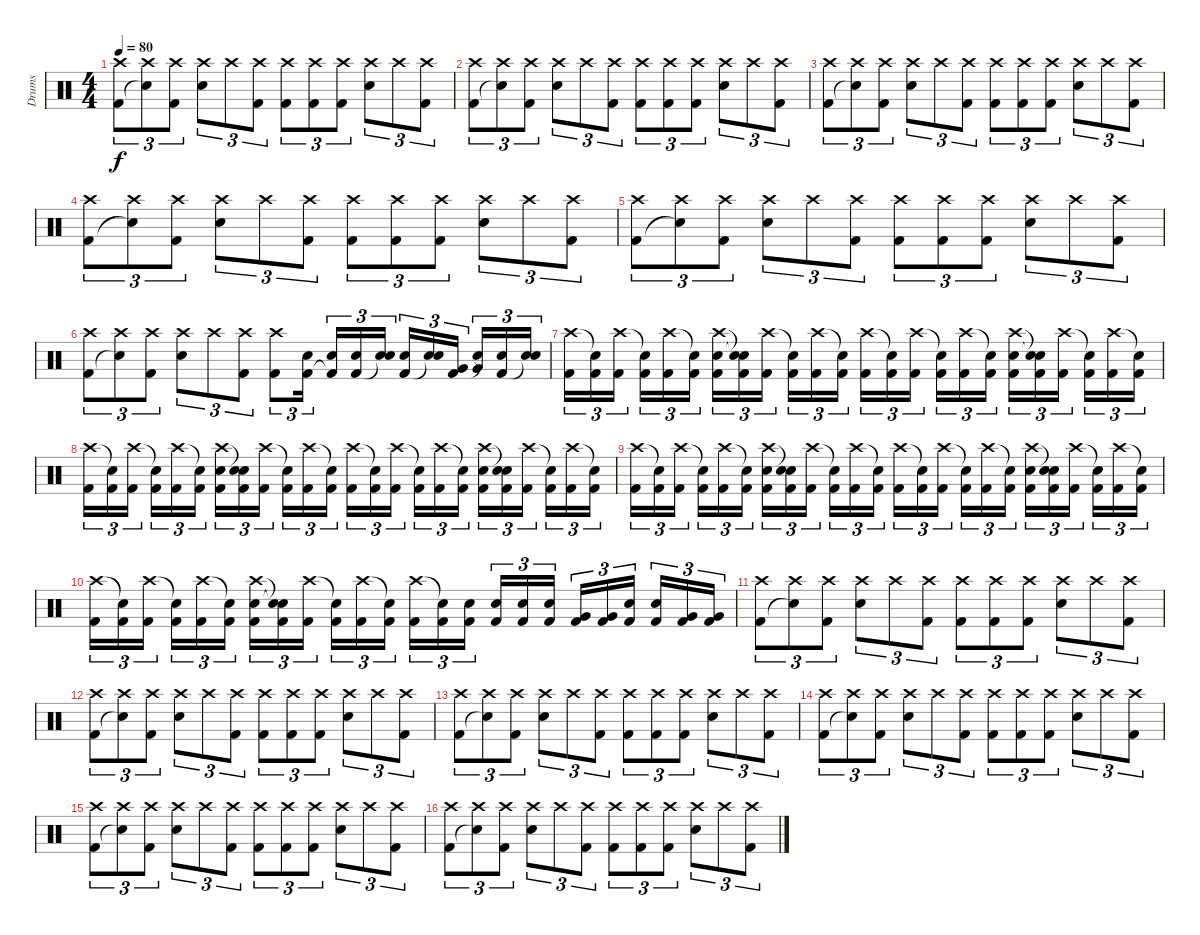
\track ("Drums" "Drums") {instrument percussion}
\staff {score}
\articulation defaults
\ts (4 4)
\tempo 80
\clef neutral
\ks c
("Crash high (hit)" "Kick (hit) 2").8{tu (3 2) dy f} ("Crash high (hit)" "Snare (hit)"{t}).8{tu (3 2)} ("Crash high (hit)" "Kick (hit) 2").8{tu (3 2)} ("Crash high (hit)" "Snare (hit) 2").8{tu (3 2)} "Crash high (hit)".8{tu (3 2)} ("Crash high (hit)" "Kick (hit) 2").8{tu (3 2)} ("Crash high (hit)" "Kick (hit) 2").8{tu (3 2)} ("Crash high (hit)" "Kick (hit) 2").8{tu (3 2)} ("Crash high (hit)" "Kick (hit) 2").8{tu (3 2)} ("Crash high (hit)" "Snare (hit) 2").8{tu (3 2)} "Crash high (hit)".8{tu (3 2)} ("Crash high (hit)" "Kick (hit) 2").8{tu (3 2)} |
("Crash high (hit)" "Kick (hit) 2").8{tu (3 2)} ("Crash high (hit)" "Snare (hit)"{t}).8{tu (3 2)} ("Crash high (hit)" "Kick (hit) 2").8{tu (3 2)} ("Crash high (hit)" "Snare (hit) 2").8{tu (3 2)} "Crash high (hit)".8{tu (3 2)} ("Crash high (hit)" "Kick (hit) 2").8{tu (3 2)} ("Crash high (hit)" "Kick (hit) 2").8{tu (3 2)} ("Crash high (hit)" "Kick (hit) 2").8{tu (3 2)} ("Crash high (hit)" "Kick (hit) 2").8{tu (3 2)} ("Crash high (hit)" "Snare (hit) 2").8{tu (3 2)} "Crash high (hit)".8{tu (3 2)} ("Crash high (hit)" "Kick (hit) 2").8{tu (3 2)} |
("Crash high (hit)" "Kick (hit) 2").8{tu (3 2)} ("Crash high (hit)" "Snare (hit)"{t}).8{tu (3 2)} ("Crash high (hit)" "Kick (hit) 2").8{tu (3 2)} ("Crash high (hit)" "Snare (hit) 2").8{tu (3 2)} "Crash high (hit)".8{tu (3 2)} ("Crash high (hit)" "Kick (hit) 2").8{tu (3 2)} ("Crash high (hit)" "Kick (hit) 2").8{tu (3 2)} ("Crash high (hit)" "Kick (hit) 2").8{tu (3 2)} ("Crash high (hit)" "Kick (hit) 2").8{tu (3 2)} ("Crash high (hit)" "Snare (hit) 2").8{tu (3 2)} "Crash high (hit)".8{tu (3 2)} ("Crash high (hit)" "Kick (hit) 2").8{tu (3 2)} |
("Crash high (hit)" "Kick (hit) 2").8{tu (3 2)} ("Crash high (hit)" "Snare (hit)"{t}).8{tu (3 2)} ("Crash high (hit)" "Kick (hit) 2").8{tu (3 2)} ("Crash high (hit)" "Snare (hit) 2").8{tu (3 2)} "Crash high (hit)".8{tu (3 2)} ("Crash high (hit)" "Kick (hit) 2").8{tu (3 2)} ("Crash high (hit)" "Kick (hit) 2").8{tu (3 2)} ("Crash high (hit)" "Kick (hit) 2").8{tu (3 2)} ("Crash high (hit)" "Kick (hit) 2").8{tu (3 2)} ("Crash high (hit)" "Snare (hit) 2").8{tu (3 2)} "Crash high (hit)".8{tu (3 2)} ("Crash high (hit)" "Kick (hit) 2").8{tu (3 2)} |
("Crash high (hit)" "Kick (hit) 2").8{tu (3 2)} ("Crash high (hit)" "Snare (hit)"{t}).8{tu (3 2)} ("Crash high (hit)" "Kick (hit) 2").8{tu (3 2)} ("Crash high (hit)" "Snare (hit) 2").8{tu (3 2)} "Crash high (hit)".8{tu (3 2)} ("Crash high (hit)" "Kick (hit) 2").8{tu (3 2)} ("Crash high (hit)" "Kick (hit) 2").8{tu (3 2)} ("Crash high (hit)" "Kick (hit) 2").8{tu (3 2)} ("Crash high (hit)" "Kick (hit) 2").8{tu (3 2)} ("Crash high (hit)" "Snare (hit) 2").8{tu (3 2)} "Crash high (hit)".8{tu (3 2)} ("Crash high (hit)" "Kick (hit) 2").8{tu (3 2)} |
("Crash high (hit)" "Kick (hit) 2").8{tu (3 2)} ("Crash high (hit)" "Snare (hit)"{t}).8{tu (3 2)} ("Crash high (hit)" "Kick (hit) 2").8{tu (3 2)} ("Crash high (hit)" "Snare (hit) 2").8{tu (3 2)} "Crash high (hit)".8{tu (3 2)} ("Crash high (hit)" "Kick (hit) 2").8{tu (3 2)} ("Crash high (hit)" "Kick (hit) 2").8{tu (3 2)} ("Snare (hit) 2" "Kick (hit) 2").16{tu (3 2)} ("Snare (hit) 2" "Kick (hit) 2"{t}).16{tu (3 2)} ("Snare (hit) 2" "Kick (hit) 2").16{tu (3 2)} ("Snare (hit) 2" "Snare (hit)"{t}).16{tu (3 2)} ("Snare (hit) 2" "Kick (hit) 2").16{tu (3 2)} ("Snare (hit) 2" "Snare (hit)"{t}).16{tu (3 2)} ("Very Low Tom (hit)" "Kick (hit) 2").16{tu (3 2)} ("Very Low Tom (hit)" "Snare (hit)"{t}).16{tu (3 2)} ("Snare (hit) 2" "Kick (hit) 2").16{tu (3 2)} ("Snare (hit) 2" "Snare (hit)"{t}).16{tu (3 2)} |
("Crash high (hit)" "Kick (hit) 2").16{tu (3 2)} ("Snare (hit)"{t} "Kick (hit) 2").16{tu (3 2)} ("Crash high (hit)" "Kick (hit) 2").16{tu (3 2)} ("Snare (hit)"{t} "Kick (hit) 2").16{tu (3 2)} ("Crash high (hit)" "Kick (hit) 2").16{tu (3 2)} ("Snare (hit)"{t} "Kick (hit) 2").16{tu (3 2)} ("Crash high (hit)" "Snare (hit) 2" "Kick (hit) 2").16{tu (3 2)} ("Snare (hit)"{t} "Snare (hit)"{t} "Kick (hit) 2").16{tu (3 2)} ("Crash high (hit)" "Kick (hit) 2").16{tu (3 2)} ("Snare (hit)"{t} "Kick (hit) 2").16{tu (3 2)} ("Crash high (hit)" "Kick (hit) 2").16{tu (3 2)} ("Snare (hit)"{t} "Kick (hit) 2").16{tu (3 2)} ("Crash high (hit)" "Kick (hit) 2").16{tu (3 2)} ("Snare (hit)"{t} "Kick (hit) 2").16{tu (3 2)} ("Crash high (hit)" "Kick (hit) 2").16{tu (3 2)} ("Snare (hit)"{t} "Kick (hit) 2").16{tu (3 2)} ("Crash high (hit)" "Kick (hit) 2").16{tu (3 2)} ("Snare (hit)"{t} "Kick (hit) 2").16{tu (3 2)} ("Crash high (hit)" "Snare (hit) 2" "Kick (hit) 2").16{tu (3 2)} ("Snare (hit)"{t} "Snare (hit)"{t} "Kick (hit) 2").16{tu (3 2)} ("Crash high (hit)" "Kick (hit) 2").16{tu (3 2)} ("Snare (hit)"{t} "Kick (hit) 2").16{tu (3 2)} ("Crash high (hit)" "Kick (hit) 2").16{tu (3 2)} ("Snare (hit)"{t} "Kick (hit) 2").16{tu (3 2)} |
("Crash high (hit)" "Kick (hit) 2").16{tu (3 2)} ("Snare (hit)"{t} "Kick (hit) 2").16{tu (3 2)} ("Crash high (hit)" "Kick (hit) 2").16{tu (3 2)} ("Snare (hit)"{t} "Kick (hit) 2").16{tu (3 2)} ("Crash high (hit)" "Kick (hit) 2").16{tu (3 2)} ("Snare (hit)"{t} "Kick (hit) 2").16{tu (3 2)} ("Crash high (hit)" "Snare (hit) 2" "Kick (hit) 2").16{tu (3 2)} ("Snare (hit)"{t} "Snare (hit)"{t} "Kick (hit) 2").16{tu (3 2)} ("Crash high (hit)" "Kick (hit) 2").16{tu (3 2)} ("Snare (hit)"{t} "Kick (hit) 2").16{tu (3 2)} ("Crash high (hit)" "Kick (hit) 2").16{tu (3 2)} ("Snare (hit)"{t} "Kick (hit) 2").16{tu (3 2)} ("Crash high (hit)" "Kick (hit) 2").16{tu (3 2)} ("Snare (hit)"{t} "Kick (hit) 2").16{tu (3 2)} ("Crash high (hit)" "Kick (hit) 2").16{tu (3 2)} ("Snare (hit)"{t} "Kick (hit) 2").16{tu (3 2)} ("Crash high (hit)" "Kick (hit) 2").16{tu (3 2)} ("Snare (hit)"{t} "Kick (hit) 2").16{tu (3 2)} ("Crash high (hit)" "Snare (hit) 2" "Kick (hit) 2").16{tu (3 2)} ("Snare (hit)"{t} "Snare (hit)"{t} "Kick (hit) 2").16{tu (3 2)} ("Crash high (hit)" "Kick (hit) 2").16{tu (3 2)} ("Snare (hit)"{t} "Kick (hit) 2").16{tu (3 2)} ("Crash high (hit)" "Kick (hit) 2").16{tu (3 2)} ("Snare (hit)"{t} "Kick (hit) 2").16{tu (3 2)} |
("Crash high (hit)" "Kick (hit) 2").16{tu (3 2)} ("Snare (hit)"{t} "Kick (hit) 2").16{tu (3 2)} ("Crash high (hit)" "Kick (hit) 2").16{tu (3 2)} ("Snare (hit)"{t} "Kick (hit) 2").16{tu (3 2)} ("Crash high (hit)" "Kick (hit) 2").16{tu (3 2)} ("Snare (hit)"{t} "Kick (hit) 2").16{tu (3 2)} ("Crash high (hit)" "Snare (hit) 2" "Kick (hit) 2").16{tu (3 2)} ("Snare (hit)"{t} "Snare (hit)"{t} "Kick (hit) 2").16{tu (3 2)} ("Crash high (hit)" "Kick (hit) 2").16{tu (3 2)} ("Snare (hit)"{t} "Kick (hit) 2").16{tu (3 2)} ("Crash high (hit)" "Kick (hit) 2").16{tu (3 2)} ("Snare (hit)"{t} "Kick (hit) 2").16{tu (3 2)} ("Crash high (hit)" "Kick (hit) 2").16{tu (3 2)} ("Snare (hit)"{t} "Kick (hit) 2").16{tu (3 2)} ("Crash high (hit)" "Kick (hit) 2").16{tu (3 2)} ("Snare (hit)"{t} "Kick (hit) 2").16{tu (3 2)} ("Crash high (hit)" "Kick (hit) 2").16{tu (3 2)} ("Snare (hit)"{t} "Kick (hit) 2").16{tu (3 2)} ("Crash high (hit)" "Snare (hit) 2" "Kick (hit) 2").16{tu (3 2)} ("Snare (hit)"{t} "Snare (hit)"{t} "Kick (hit) 2").16{tu (3 2)} ("Crash high (hit)" "Kick (hit) 2").16{tu (3 2)} ("Snare (hit)"{t} "Kick (hit) 2").16{tu (3 2)} ("Crash high (hit)" "Kick (hit) 2").16{tu (3 2)} ("Snare (hit)"{t} "Kick (hit) 2").16{tu (3 2)} |
("Crash high (hit)" "Kick (hit) 2").16{tu (3 2)} ("Snare (hit)"{t} "Kick (hit) 2").16{tu (3 2)} ("Crash high (hit)" "Kick (hit) 2").16{tu (3 2)} ("Snare (hit)"{t} "Kick (hit) 2").16{tu (3 2)} ("Crash high (hit)" "Kick (hit) 2").16{tu (3 2)} ("Snare (hit)"{t} "Kick (hit) 2").16{tu (3 2)} ("Crash high (hit)" "Snare (hit) 2" "Kick (hit) 2").16{tu (3 2)} ("Snare (hit)"{t} "Snare (hit)"{t} "Kick (hit) 2").16{tu (3 2)} ("Crash high (hit)" "Kick (hit) 2").16{tu (3 2)} ("Snare (hit)"{t} "Kick (hit) 2").16{tu (3 2)} ("Crash high (hit)" "Kick (hit) 2").16{tu (3 2)} ("Snare (hit)"{t} "Kick (hit) 2").16{tu (3 2)} ("Crash high (hit)" "Kick (hit) 2").16{tu (3 2)} ("Snare (hit)"{t} "Kick (hit) 2").16{tu (3 2)} ("Snare (hit) 2" "Kick (hit) 2").16{tu (3 2)} ("Snare (hit) 2" "Kick (hit) 2").16{tu (3 2)} ("Snare (hit) 2" "Kick (hit) 2").16{tu (3 2)} ("Snare (hit) 2" "Kick (hit) 2").16{tu (3 2)} ("Very Low Tom (hit)" "Kick (hit) 2").16{tu (3 2)} ("Very Low Tom (hit)" "Kick (hit) 2").16{tu (3 2)} ("Snare (hit) 2" "Kick (hit) 2").16{tu (3 2)} ("Snare (hit) 2" "Kick (hit) 2").16{tu (3 2)} ("Very Low Tom (hit)" "Kick (hit) 2").16{tu (3 2)} ("Very Low Tom (hit)" "Kick (hit) 2").16{tu (3 2)} |
("Crash high (hit)" "Kick (hit) 2").8{tu (3 2)} ("Crash high (hit)" "Snare (hit)"{t}).8{tu (3 2)} ("Crash high (hit)" "Kick (hit) 2").8{tu (3 2)} ("Crash high (hit)" "Snare (hit) 2").8{tu (3 2)} "Crash high (hit)".8{tu (3 2)} ("Crash high (hit)" "Kick (hit) 2").8{tu (3 2)} ("Crash high (hit)" "Kick (hit) 2").8{tu (3 2)} ("Crash high (hit)" "Kick (hit) 2").8{tu (3 2)} ("Crash high (hit)" "Kick (hit) 2").8{tu (3 2)} ("Crash high (hit)" "Snare (hit) 2").8{tu (3 2)} "Crash high (hit)".8{tu (3 2)} ("Crash high (hit)" "Kick (hit) 2").8{tu (3 2)} |
("Crash high (hit)" "Kick (hit) 2").8{tu (3 2)} ("Crash high (hit)" "Snare (hit)"{t}).8{tu (3 2)} ("Crash high (hit)" "Kick (hit) 2").8{tu (3 2)} ("Crash high (hit)" "Snare (hit) 2").8{tu (3 2)} "Crash high (hit)".8{tu (3 2)} ("Crash high (hit)" "Kick (hit) 2").8{tu (3 2)} ("Crash high (hit)" "Kick (hit) 2").8{tu (3 2)} ("Crash high (hit)" "Kick (hit) 2").8{tu (3 2)} ("Crash high (hit)" "Kick (hit) 2").8{tu (3 2)} ("Crash high (hit)" "Snare (hit) 2").8{tu (3 2)} "Crash high (hit)".8{tu (3 2)} ("Crash high (hit)" "Kick (hit) 2").8{tu (3 2)} |
("Crash high (hit)" "Kick (hit) 2").8{tu (3 2)} ("Crash high (hit)" "Snare (hit)"{t}).8{tu (3 2)} ("Crash high (hit)" "Kick (hit) 2").8{tu (3 2)} ("Crash high (hit)" "Snare (hit) 2").8{tu (3 2)} "Crash high (hit)".8{tu (3 2)} ("Crash high (hit)" "Kick (hit) 2").8{tu (3 2)} ("Crash high (hit)" "Kick (hit) 2").8{tu (3 2)} ("Crash high (hit)" "Kick (hit) 2").8{tu (3 2)} ("Crash high (hit)" "Kick (hit) 2").8{tu (3 2)} ("Crash high (hit)" "Snare (hit) 2").8{tu (3 2)} "Crash high (hit)".8{tu (3 2)} ("Crash high (hit)" "Kick (hit) 2").8{tu (3 2)} |
("Crash high (hit)" "Kick (hit) 2").8{tu (3 2)} ("Crash high (hit)" "Snare (hit)"{t}).8{tu (3 2)} ("Crash high (hit)" "Kick (hit) 2").8{tu (3 2)} ("Crash high (hit)" "Snare (hit) 2").8{tu (3 2)} "Crash high (hit)".8{tu (3 2)} ("Crash high (hit)" "Kick (hit) 2").8{tu (3 2)} ("Crash high (hit)" "Kick (hit) 2").8{tu (3 2)} ("Crash high (hit)" "Kick (hit) 2").8{tu (3 2)} ("Crash high (hit)" "Kick (hit) 2").8{tu (3 2)} ("Crash high (hit)" "Snare (hit) 2").8{tu (3 2)} "Crash high (hit)".8{tu (3 2)} ("Crash high (hit)" "Kick (hit) 2").8{tu (3 2)} |
("Crash high (hit)" "Kick (hit) 2").8{tu (3 2)} ("Crash high (hit)" "Snare (hit)"{t}).8{tu (3 2)} ("Crash high (hit)" "Kick (hit) 2").8{tu (3 2)} ("Crash high (hit)" "Snare (hit) 2").8{tu (3 2)} "Crash high (hit)".8{tu (3 2)} ("Crash high (hit)" "Kick (hit) 2").8{tu (3 2)} ("Crash high (hit)" "Kick (hit) 2").8{tu (3 2)} ("Crash high (hit)" "Kick (hit) 2").8{tu (3 2)} ("Crash high (hit)" "Kick (hit) 2").8{tu (3 2)} ("Crash high (hit)" "Snare (hit) 2").8{tu (3 2)} "Crash high (hit)".8{tu (3 2)} ("Crash high (hit)" "Kick (hit) 2").8{tu (3 2)} |
("Crash high (hit)" "Kick (hit) 2").8{tu (3 2)} ("Crash high (hit)" "Snare (hit)"{t}).8{tu (3 2)} ("Crash high (hit)" "Kick (hit) 2").8{tu (3 2)} ("Crash high (hit)" "Snare (hit) 2").8{tu (3 2)} "Crash high (hit)".8{tu (3 2)} ("Crash high (hit)" "Kick (hit) 2").8{tu (3 2)} ("Crash high (hit)" "Kick (hit) 2").8{tu (3 2)} ("Crash high (hit)" "Kick (hit) 2").8{tu (3 2)} ("Crash high (hit)" "Kick (hit) 2").8{tu (3 2)} ("Crash high (hit)" "Snare (hit) 2").8{tu (3 2)} "Crash high (hit)".8{tu (3 2)} ("Crash high (hit)" "Kick (hit) 2").8{tu (3 2)}
